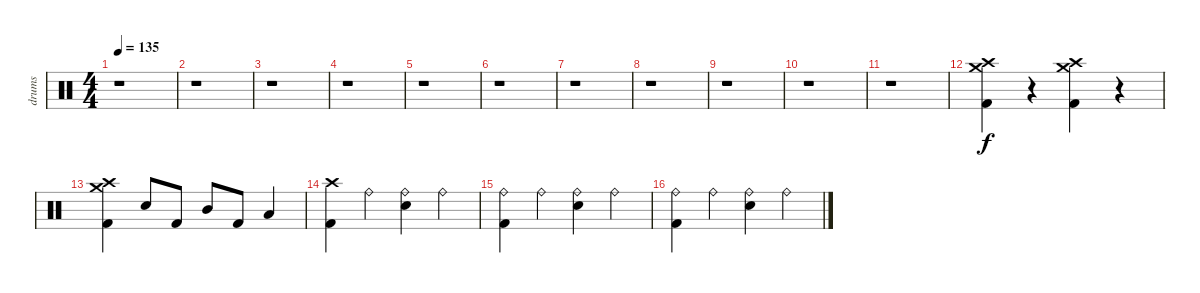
\track ("drums" "drums") {instrument percussion}
\staff {score}
\articulation defaults
\ts (4 4)
\tempo 135
\clef neutral
\ks c
r.1{dy f} |
r.1 |
r.1 |
r.1 |
r.1 |
r.1 |
r.1 |
r.1 |
r.1 |
r.1 |
r.1 |
("Crash medium (hit)" "Crash high (hit)" "Kick (hit) 2").4 r.4 ("Crash high (hit)" "Crash medium (hit)" "Kick (hit) 2").4 r.4 |
("Crash medium (hit)" "Crash high (hit)" "Kick (hit) 2").4 "Electric Snare (hit)".8 "Kick (hit) 2".8 "Mid Tom (hit)".8 "Kick (hit) 2".8 "Low Tom (hit)".4 |
("Kick (hit) 2" "Crash high (hit)").4 "Ride (bell)".4 ("Electric Snare (hit)" "Ride (bell)").4 "Ride (bell)".4 |
("Kick (hit) 2" "Ride (bell)").4 "Ride (bell)".4 ("Electric Snare (hit)" "Ride (bell)").4 "Ride (bell)".4 |
("Ride (bell)" "Kick (hit) 2").4 "Ride (bell)".4 ("Electric Snare (hit)" "Ride (bell)").4 "Ride (bell)".4
